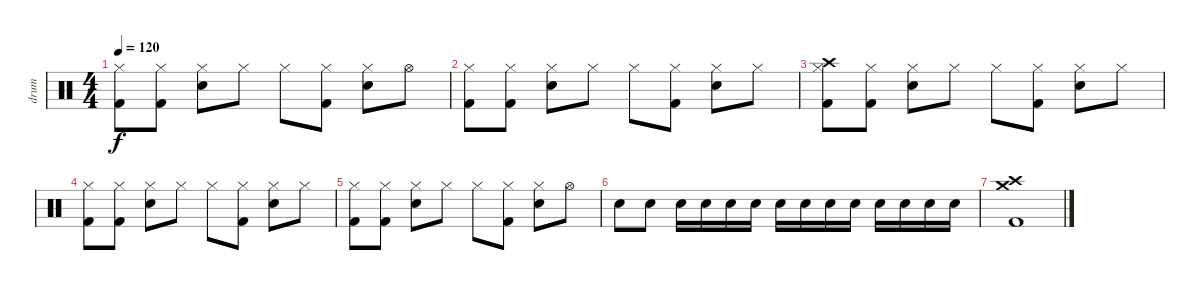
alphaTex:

\track ("drum" "drum") {instrument percussion}
\staff {score}
\articulation defaults
\ts (4 4)
\tempo 120
\clef neutral
\ks c
("Hi-Hat (closed)" "Kick (hit) 2").8{dy f} ("Hi-Hat (closed)" "Kick (hit) 2").8 ("Hi-Hat (closed)" "Electric Snare (hit)").8 "Hi-Hat (closed)".8 "Hi-Hat (closed)".8 ("Hi-Hat (closed)" "Kick (hit) 2").8 ("Hi-Hat (closed)" "Electric Snare (hit)").8 "Hi-Hat (open)".8 |
("Hi-Hat (closed)" "Kick (hit) 2").8 ("Hi-Hat (closed)" "Kick (hit) 2").8 ("Hi-Hat (closed)" "Electric Snare (hit)").8 "Hi-Hat (closed)".8 "Hi-Hat (closed)".8 ("Hi-Hat (closed)" "Kick (hit) 2").8 ("Hi-Hat (closed)" "Electric Snare (hit)").8 "Hi-Hat (closed)".8 |
("Crash high (hit)" "Hi-Hat (closed)" "Kick (hit) 2").8 ("Hi-Hat (closed)" "Kick (hit) 2").8 ("Hi-Hat (closed)" "Electric Snare (hit)").8 "Hi-Hat (closed)".8 "Hi-Hat (closed)".8 ("Hi-Hat (closed)" "Kick (hit) 2").8 ("Hi-Hat (closed)" "Electric Snare (hit)").8 "Hi-Hat (closed)".8 |
("Hi-Hat (closed)" "Kick (hit) 2").8 ("Hi-Hat (closed)" "Kick (hit) 2").8 ("Hi-Hat (closed)" "Electric Snare (hit)").8 "Hi-Hat (closed)".8 "Hi-Hat (closed)".8 ("Hi-Hat (closed)" "Kick (hit) 2").8 ("Hi-Hat (closed)" "Electric Snare (hit)").8 "Hi-Hat (closed)".8 |
("Hi-Hat (closed)" "Kick (hit) 2").8 ("Hi-Hat (closed)" "Kick (hit) 2").8 ("Hi-Hat (closed)" "Electric Snare (hit)").8 "Hi-Hat (closed)".8 "Hi-Hat (closed)".8 ("Hi-Hat (closed)" "Kick (hit) 2").8 ("Hi-Hat (closed)" "Electric Snare (hit)").8 "Hi-Hat (open)".8 |
"Electric Snare (hit)".8 "Electric Snare (hit)".8 "Electric Snare (hit)".16 "Electric Snare (hit)".16 "Electric Snare (hit)".16 "Electric Snare (hit)".16 "Electric Snare (hit)".16 "Electric Snare (hit)".16 "Electric Snare (hit)".16 "Electric Snare (hit)".16 "Electric Snare (hit)".16 "Electric Snare (hit)".16 "Electric Snare (hit)".16 "Electric Snare (hit)".16 |
("Crash medium (hit)" "Crash high (hit)" "Kick (hit) 2").1
